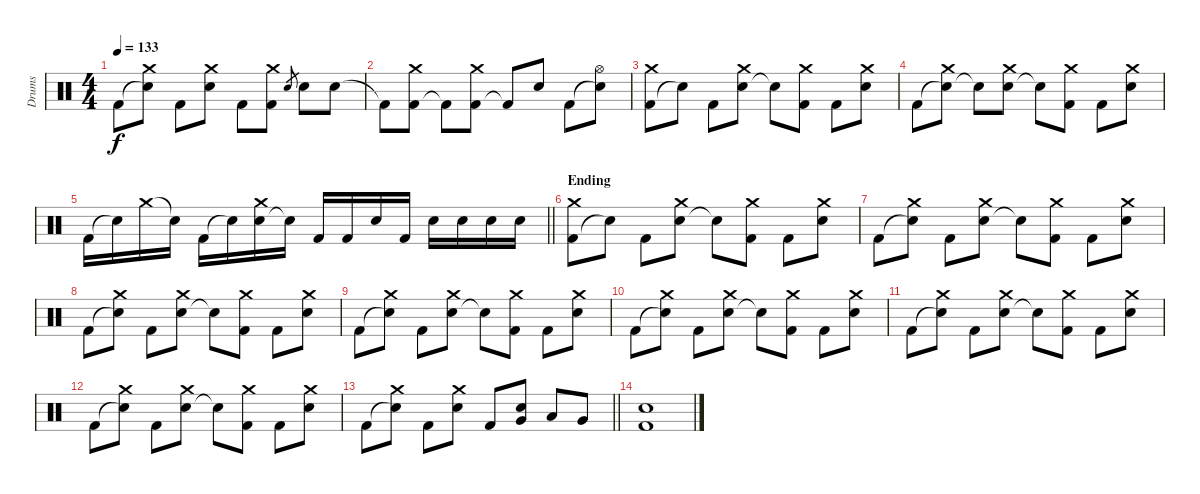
\track ("Drums" "Drums") {instrument percussion}
\staff {score}
\articulation defaults
\ts (4 4)
\tempo 133
\clef neutral
\ks c "Kick (hit) 2".8{dy f}
("Snare (hit)"{t} "Crash medium (hit)").8 "Kick (hit) 2".8 ("Electric Snare (hit)" "Crash medium (hit)").8 "Kick (hit) 2".8 ("Kick (hit) 2" "Crash medium (hit)").8 "Electric Snare (hit)".8{gr} "Electric Snare (hit)".8 "Electric Snare (hit)".8 |
"Kick (hit) 2"{t}.8 ("Kick (hit) 2" "Crash medium (hit)").8 "Kick (hit) 2"{t}.8 ("Kick (hit) 2" "Crash medium (hit)").8 "Kick (hit) 2"{t}.8 "Electric Snare (hit)".8 "Kick (hit) 2".8 ("Snare (hit)"{t} "Hi-Hat (open)").8 |
("Kick (hit) 2" "Crash medium (hit)").8 "Snare (hit)"{t}.8 "Kick (hit) 2".8 ("Electric Snare (hit)" "Crash medium (hit)").8 "Snare (hit)"{t}.8 ("Kick (hit) 2" "Crash medium (hit)").8 "Kick (hit) 2".8 ("Electric Snare (hit)" "Crash medium (hit)").8 |
"Kick (hit) 2".8 ("Snare (hit)"{t} "Crash medium (hit)").8 "Snare (hit)"{t}.8 ("Electric Snare (hit)" "Crash medium (hit)").8 "Snare (hit)"{t}.8 ("Kick (hit) 2" "Crash medium (hit)").8 "Kick (hit) 2".8 ("Electric Snare (hit)" "Crash medium (hit)").8 |
\barLineRight lightlight "Kick (hit) 2".16 "Snare (hit)"{t}.16 "Crash medium (hit)".16 "Snare (hit)"{t}.16 "Kick (hit) 2".16 "Snare (hit)"{t}.16
("Electric Snare (hit)" "Crash medium (hit)").16 "Snare (hit)"{t}.16 "Kick (hit) 2".16 "Kick (hit) 2".16 "Electric Snare (hit)".16 "Kick (hit) 2".16 "Electric Snare (hit)".16 "Electric Snare (hit)".16 "Electric Snare (hit)".16 "Electric Snare (hit)".16 |
\section ("" "Ending")
("Kick (hit) 2" "Crash medium (hit)").8 "Snare (hit)"{t}.8 "Kick (hit) 2".8 ("Electric Snare (hit)" "Crash medium (hit)").8 "Snare (hit)"{t}.8 ("Kick (hit) 2" "Crash medium (hit)").8 "Kick (hit) 2".8 ("Electric Snare (hit)" "Crash medium (hit)").8 |
"Kick (hit) 2".8 ("Snare (hit)"{t} "Crash medium (hit)").8 "Kick (hit) 2".8 ("Electric Snare (hit)" "Crash medium (hit)").8 "Snare (hit)"{t}.8 ("Kick (hit) 2" "Crash medium (hit)").8 "Kick (hit) 2".8 ("Electric Snare (hit)" "Crash medium (hit)").8 |
"Kick (hit) 2".8 ("Snare (hit)"{t} "Crash medium (hit)").8 "Kick (hit) 2".8 ("Electric Snare (hit)" "Crash medium (hit)").8 "Snare (hit)"{t}.8 ("Kick (hit) 2" "Crash medium (hit)").8 "Kick (hit) 2".8 ("Electric Snare (hit)" "Crash medium (hit)").8 |
"Kick (hit) 2".8 ("Snare (hit)"{t} "Crash medium (hit)").8 "Kick (hit) 2".8 ("Electric Snare (hit)" "Crash medium (hit)").8 "Snare (hit)"{t}.8 ("Kick (hit) 2" "Crash medium (hit)").8 "Kick (hit) 2".8 ("Electric Snare (hit)" "Crash medium (hit)").8 |
"Kick (hit) 2".8 ("Snare (hit)"{t} "Crash medium (hit)").8 "Kick (hit) 2".8 ("Electric Snare (hit)" "Crash medium (hit)").8 "Snare (hit)"{t}.8 ("Kick (hit) 2" "Crash medium (hit)").8 "Kick (hit) 2".8 ("Electric Snare (hit)" "Crash medium (hit)").8 |
"Kick (hit) 2".8 ("Snare (hit)"{t} "Crash medium (hit)").8 "Kick (hit) 2".8 ("Electric Snare (hit)" "Crash medium (hit)").8 "Snare (hit)"{t}.8 ("Kick (hit) 2" "Crash medium (hit)").8 "Kick (hit) 2".8 ("Electric Snare (hit)" "Crash medium (hit)").8 |
"Kick (hit) 2".8 ("Snare (hit)"{t} "Crash medium (hit)").8 "Kick (hit) 2".8 ("Electric Snare (hit)" "Crash medium (hit)").8 "Snare (hit)"{t}.8 ("Kick (hit) 2" "Crash medium (hit)").8 "Kick (hit) 2".8 ("Electric Snare (hit)" "Crash medium (hit)").8 |
\barLineRight lightlight "Kick (hit) 2".8
("Snare (hit)"{t} "Crash medium (hit)").8 "Kick (hit) 2".8 ("Electric Snare (hit)" "Crash medium (hit)").8 "Kick (hit) 2".8 ("Electric Snare (hit)" "Very Low Tom (hit)").8 "Low Tom (hit)".8 "Very Low Tom (hit)".8 |
("Electric Snare (hit)" "Kick (hit) 2").1
